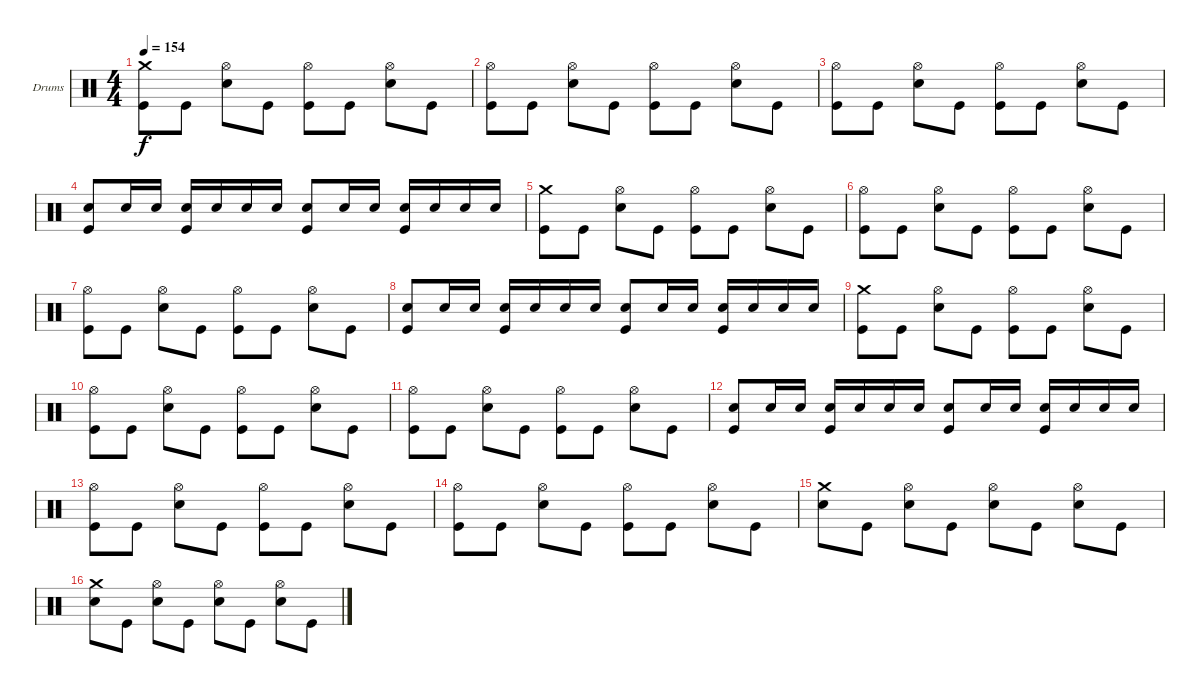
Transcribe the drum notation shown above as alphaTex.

\defaultSystemsLayout 4
\bracketExtendMode groupsimilarinstruments
\firstSystemTrackNameOrientation horizontal
\otherSystemsTrackNameOrientation horizontal
\track ("Drumkit" "Drums") {instrument percussion}
\staff {score}
\articulation defaults
\ts (4 4)
\tempo 154
\clef neutral
\ks c
("Crash medium (hit)" "Kick (hit)").8{dy f} "Kick (hit)".8 ("Hi-Hat (open)" "Snare (hit) 2").8 "Kick (hit)".8 ("Hi-Hat (open)" "Kick (hit)").8 "Kick (hit)".8 ("Hi-Hat (open)" "Snare (hit) 2").8 "Kick (hit)".8 |
("Hi-Hat (open)" "Kick (hit)").8 "Kick (hit)".8 ("Hi-Hat (open)" "Snare (hit) 2").8 "Kick (hit)".8 ("Hi-Hat (open)" "Kick (hit)").8 "Kick (hit)".8 ("Hi-Hat (open)" "Snare (hit) 2").8 "Kick (hit)".8 |
("Hi-Hat (open)" "Kick (hit)").8 "Kick (hit)".8 ("Hi-Hat (open)" "Snare (hit) 2").8 "Kick (hit)".8 ("Hi-Hat (open)" "Kick (hit)").8 "Kick (hit)".8 ("Hi-Hat (open)" "Snare (hit) 2").8 "Kick (hit)".8 |
("Snare (hit) 2" "Kick (hit)").8 "Snare (hit) 2".16 "Snare (hit) 2".16 ("Snare (hit) 2" "Kick (hit)").16 "Snare (hit) 2".16 "Snare (hit) 2".16 "Snare (hit) 2".16 ("Snare (hit) 2" "Kick (hit)").8 "Snare (hit) 2".16 "Snare (hit) 2".16 ("Snare (hit) 2" "Kick (hit)").16 "Snare (hit) 2".16 "Snare (hit) 2".16 "Snare (hit) 2".16 |
("Crash medium (hit)" "Kick (hit)").8 "Kick (hit)".8 ("Hi-Hat (open)" "Snare (hit) 2").8 "Kick (hit)".8 ("Hi-Hat (open)" "Kick (hit)").8 "Kick (hit)".8 ("Hi-Hat (open)" "Snare (hit) 2").8 "Kick (hit)".8 |
("Hi-Hat (open)" "Kick (hit)").8 "Kick (hit)".8 ("Hi-Hat (open)" "Snare (hit) 2").8 "Kick (hit)".8 ("Hi-Hat (open)" "Kick (hit)").8 "Kick (hit)".8 ("Hi-Hat (open)" "Snare (hit) 2").8 "Kick (hit)".8 |
("Hi-Hat (open)" "Kick (hit)").8 "Kick (hit)".8 ("Hi-Hat (open)" "Snare (hit) 2").8 "Kick (hit)".8 ("Hi-Hat (open)" "Kick (hit)").8 "Kick (hit)".8 ("Hi-Hat (open)" "Snare (hit) 2").8 "Kick (hit)".8 |
("Snare (hit) 2" "Kick (hit)").8 "Snare (hit) 2".16 "Snare (hit) 2".16 ("Snare (hit) 2" "Kick (hit)").16 "Snare (hit) 2".16 "Snare (hit) 2".16 "Snare (hit) 2".16 ("Snare (hit) 2" "Kick (hit)").8 "Snare (hit) 2".16 "Snare (hit) 2".16 ("Snare (hit) 2" "Kick (hit)").16 "Snare (hit) 2".16 "Snare (hit) 2".16 "Snare (hit) 2".16 |
("Crash medium (hit)" "Kick (hit)").8 "Kick (hit)".8 ("Hi-Hat (open)" "Snare (hit) 2").8 "Kick (hit)".8 ("Hi-Hat (open)" "Kick (hit)").8 "Kick (hit)".8 ("Hi-Hat (open)" "Snare (hit) 2").8 "Kick (hit)".8 |
("Hi-Hat (open)" "Kick (hit)").8 "Kick (hit)".8 ("Hi-Hat (open)" "Snare (hit) 2").8 "Kick (hit)".8 ("Hi-Hat (open)" "Kick (hit)").8 "Kick (hit)".8 ("Hi-Hat (open)" "Snare (hit) 2").8 "Kick (hit)".8 |
("Hi-Hat (open)" "Kick (hit)").8 "Kick (hit)".8 ("Hi-Hat (open)" "Snare (hit) 2").8 "Kick (hit)".8 ("Hi-Hat (open)" "Kick (hit)").8 "Kick (hit)".8 ("Hi-Hat (open)" "Snare (hit) 2").8 "Kick (hit)".8 |
("Snare (hit) 2" "Kick (hit)").8 "Snare (hit) 2".16 "Snare (hit) 2".16 ("Snare (hit) 2" "Kick (hit)").16 "Snare (hit) 2".16 "Snare (hit) 2".16 "Snare (hit) 2".16 ("Snare (hit) 2" "Kick (hit)").8 "Snare (hit) 2".16 "Snare (hit) 2".16 ("Snare (hit) 2" "Kick (hit)").16 "Snare (hit) 2".16 "Snare (hit) 2".16 "Snare (hit) 2".16 |
("Hi-Hat (open)" "Kick (hit)").8 "Kick (hit)".8 ("Hi-Hat (open)" "Snare (hit) 2").8 "Kick (hit)".8 ("Hi-Hat (open)" "Kick (hit)").8 "Kick (hit)".8 ("Hi-Hat (open)" "Snare (hit) 2").8 "Kick (hit)".8 |
("Hi-Hat (open)" "Kick (hit)").8 "Kick (hit)".8 ("Hi-Hat (open)" "Snare (hit) 2").8 "Kick (hit)".8 ("Hi-Hat (open)" "Kick (hit)").8 "Kick (hit)".8 ("Hi-Hat (open)" "Snare (hit) 2").8 "Kick (hit)".8 |
("Crash medium (hit)" "Snare (hit) 2").8 "Kick (hit)".8 ("Hi-Hat (open)" "Snare (hit) 2").8 "Kick (hit)".8 ("Hi-Hat (open)" "Snare (hit) 2").8 "Kick (hit)".8 ("Hi-Hat (open)" "Snare (hit) 2").8 "Kick (hit)".8 |
("Crash medium (hit)" "Snare (hit) 2").8 "Kick (hit)".8 ("Hi-Hat (open)" "Snare (hit) 2").8 "Kick (hit)".8 ("Hi-Hat (open)" "Snare (hit) 2").8 "Kick (hit)".8 ("Hi-Hat (open)" "Snare (hit) 2").8 "Kick (hit)".8
